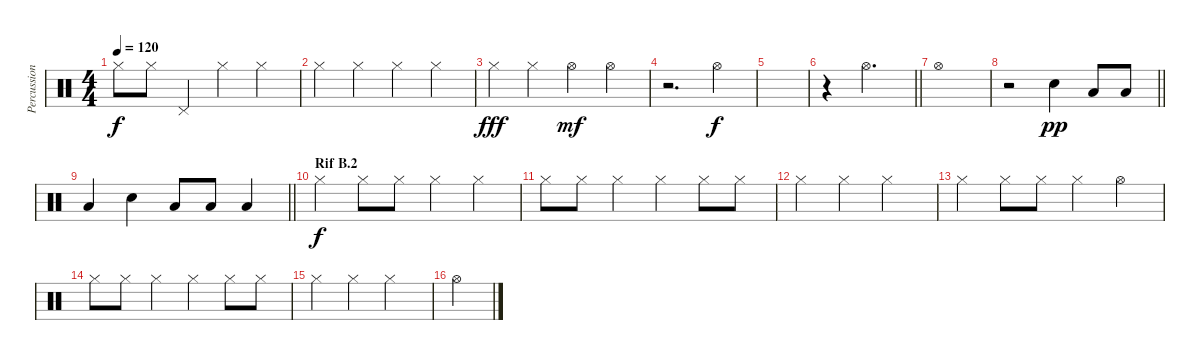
\track ("Percussion" "Percussion") {instrument percussion}
\staff {score}
\articulation defaults
\ts (4 4)
\tempo 120
\clef neutral
\ks c "Hi-Hat (closed)".8{dy f} "Hi-Hat (closed)".8 "Pedal Hi-Hat (hit)".4 "Hi-Hat (closed)".4 "Hi-Hat (closed)".4
|
"Hi-Hat (closed)".4 "Hi-Hat (closed)".4 "Hi-Hat (closed)".4 "Hi-Hat (closed)".4 |
"Hi-Hat (closed)".4{dy fff} "Hi-Hat (closed)".4 "Hi-Hat (open)".4{dy mf} "Hi-Hat (open)".4 |
r.2{d} "Hi-Hat (open)".4{dy f} |
|
\barLineRight lightlight
r.4 "Hi-Hat (open)".2{d} |
"Hi-Hat (open)".1 |
\barLineRight lightlight
r.2 "Electric Snare (hit)".4{dy pp} "Low Floor Tom (hit)".8 "Low Floor Tom (hit)".8 |
\barLineRight lightlight "Low Floor Tom (hit)".4 "Electric Snare (hit)".4 "Low Floor Tom (hit)".8 "Low Floor Tom (hit)".8 "Low Floor Tom (hit)".4
|
\section ("" "Rif B.2")
"Hi-Hat (closed)".4{dy f} "Hi-Hat (closed)".8 "Hi-Hat (closed)".8 "Hi-Hat (closed)".4 "Hi-Hat (closed)".4 |
"Hi-Hat (closed)".8 "Hi-Hat (closed)".8 "Hi-Hat (closed)".4 "Hi-Hat (closed)".4 "Hi-Hat (closed)".8 "Hi-Hat (closed)".8 |
"Hi-Hat (closed)".4 "Hi-Hat (closed)".4 "Hi-Hat (closed)".2 |
"Hi-Hat (closed)".4 "Hi-Hat (closed)".8 "Hi-Hat (closed)".8 "Hi-Hat (closed)".4 "Hi-Hat (open)".4 |
"Hi-Hat (closed)".8 "Hi-Hat (closed)".8 "Hi-Hat (closed)".4 "Hi-Hat (closed)".4 "Hi-Hat (closed)".8 "Hi-Hat (closed)".8 |
"Hi-Hat (closed)".4 "Hi-Hat (closed)".4 "Hi-Hat (closed)".2 |
"Hi-Hat (open)".4
